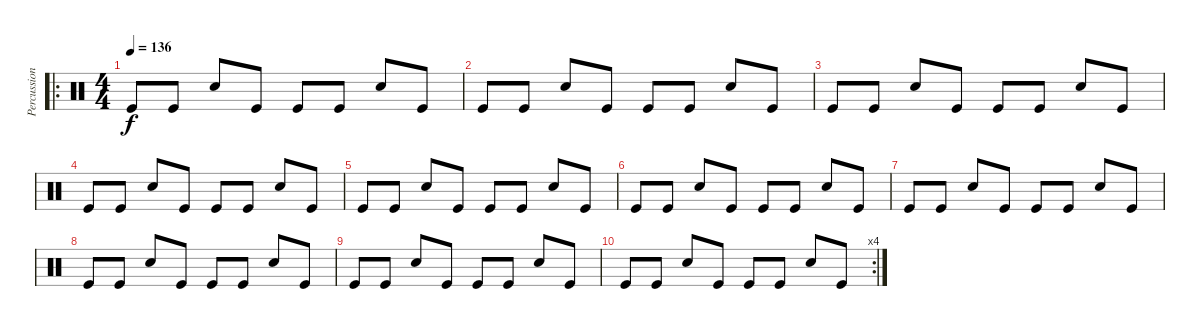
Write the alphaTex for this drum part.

\track ("Percussion" "Percussion") {instrument percussion}
\staff {score}
\articulation defaults
\ro
\ts (4 4)
\tempo 136
\clef neutral
\ks c "Kick (hit)".8{dy f} "Kick (hit)".8 "Snare (hit) 2".8 "Kick (hit)".8 "Kick (hit)".8 "Kick (hit)".8 "Snare (hit) 2".8 "Kick (hit)".8
|
"Kick (hit)".8 "Kick (hit)".8 "Snare (hit) 2".8 "Kick (hit)".8 "Kick (hit)".8 "Kick (hit)".8 "Snare (hit) 2".8 "Kick (hit)".8 |
"Kick (hit)".8 "Kick (hit)".8 "Snare (hit) 2".8 "Kick (hit)".8 "Kick (hit)".8 "Kick (hit)".8 "Snare (hit) 2".8 "Kick (hit)".8 |
"Kick (hit)".8 "Kick (hit)".8 "Snare (hit) 2".8 "Kick (hit)".8 "Kick (hit)".8 "Kick (hit)".8 "Snare (hit) 2".8 "Kick (hit)".8 |
"Kick (hit)".8 "Kick (hit)".8 "Snare (hit) 2".8 "Kick (hit)".8 "Kick (hit)".8 "Kick (hit)".8 "Snare (hit) 2".8 "Kick (hit)".8 |
"Kick (hit)".8 "Kick (hit)".8 "Snare (hit) 2".8 "Kick (hit)".8 "Kick (hit)".8 "Kick (hit)".8 "Snare (hit) 2".8 "Kick (hit)".8 |
"Kick (hit)".8 "Kick (hit)".8 "Snare (hit) 2".8 "Kick (hit)".8 "Kick (hit)".8 "Kick (hit)".8 "Snare (hit) 2".8 "Kick (hit)".8 |
"Kick (hit)".8 "Kick (hit)".8 "Snare (hit) 2".8 "Kick (hit)".8 "Kick (hit)".8 "Kick (hit)".8 "Snare (hit) 2".8 "Kick (hit)".8 |
"Kick (hit)".8 "Kick (hit)".8 "Snare (hit) 2".8 "Kick (hit)".8 "Kick (hit)".8 "Kick (hit)".8 "Snare (hit) 2".8 "Kick (hit)".8 |
\rc 4 "Kick (hit)".8 "Kick (hit)".8 "Snare (hit) 2".8 "Kick (hit)".8 "Kick (hit)".8 "Kick (hit)".8 "Snare (hit) 2".8 "Kick (hit)".8
